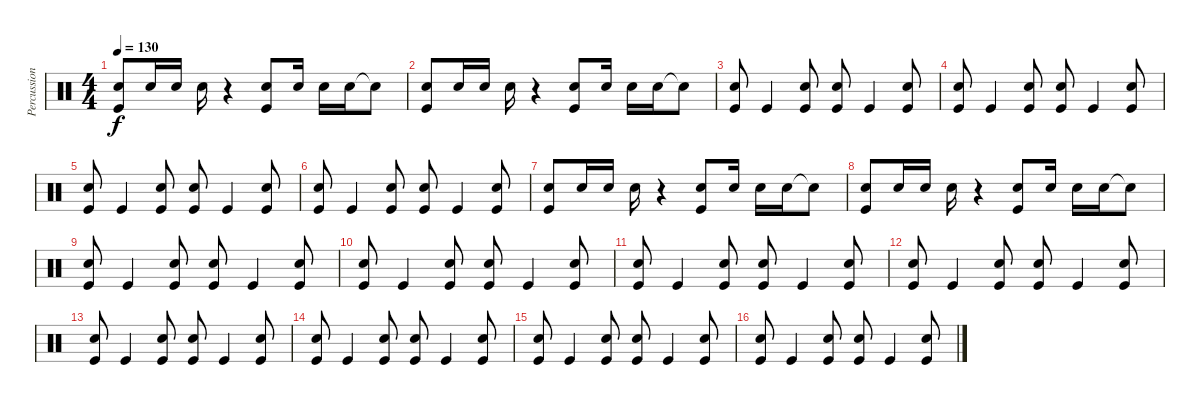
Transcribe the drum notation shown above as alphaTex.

\track ("Percussion" "Percussion") {instrument percussion}
\staff {score}
\articulation defaults
\ts (4 4)
\tempo 130
\clef neutral
\ks c
("Kick (hit)" "Snare (hit) 2").8{dy f} "Snare (hit) 2".16 "Snare (hit) 2".16 "Snare (hit) 2".16 r.4 ("Kick (hit)" "Snare (hit) 2").8 "Snare (hit) 2".16 "Snare (hit) 2".16 "Snare (hit) 2".16 "Snare (hit)"{t}.8 |
("Kick (hit)" "Snare (hit) 2").8 "Snare (hit) 2".16 "Snare (hit) 2".16 "Snare (hit) 2".16 r.4 ("Kick (hit)" "Snare (hit) 2").8 "Snare (hit) 2".16 "Snare (hit) 2".16 "Snare (hit) 2".16 "Snare (hit)"{t}.8 |
("Kick (hit)" "Snare (hit) 2").8 "Kick (hit)".4 ("Kick (hit)" "Snare (hit) 2").8 ("Kick (hit)" "Snare (hit) 2").8 "Kick (hit)".4 ("Kick (hit)" "Snare (hit) 2").8 |
("Kick (hit)" "Snare (hit) 2").8 "Kick (hit)".4 ("Kick (hit)" "Snare (hit) 2").8 ("Kick (hit)" "Snare (hit) 2").8 "Kick (hit)".4 ("Kick (hit)" "Snare (hit) 2").8 |
("Kick (hit)" "Snare (hit) 2").8 "Kick (hit)".4 ("Kick (hit)" "Snare (hit) 2").8 ("Kick (hit)" "Snare (hit) 2").8 "Kick (hit)".4 ("Kick (hit)" "Snare (hit) 2").8 |
("Kick (hit)" "Snare (hit) 2").8 "Kick (hit)".4 ("Kick (hit)" "Snare (hit) 2").8 ("Kick (hit)" "Snare (hit) 2").8 "Kick (hit)".4 ("Kick (hit)" "Snare (hit) 2").8 |
("Kick (hit)" "Snare (hit) 2").8 "Snare (hit) 2".16 "Snare (hit) 2".16 "Snare (hit) 2".16 r.4 ("Kick (hit)" "Snare (hit) 2").8 "Snare (hit) 2".16 "Snare (hit) 2".16 "Snare (hit) 2".16 "Snare (hit)"{t}.8 |
("Kick (hit)" "Snare (hit) 2").8 "Snare (hit) 2".16 "Snare (hit) 2".16 "Snare (hit) 2".16 r.4 ("Kick (hit)" "Snare (hit) 2").8 "Snare (hit) 2".16 "Snare (hit) 2".16 "Snare (hit) 2".16 "Snare (hit)"{t}.8 |
("Kick (hit)" "Snare (hit) 2").8 "Kick (hit)".4 ("Kick (hit)" "Snare (hit) 2").8 ("Kick (hit)" "Snare (hit) 2").8 "Kick (hit)".4 ("Kick (hit)" "Snare (hit) 2").8 |
("Kick (hit)" "Snare (hit) 2").8 "Kick (hit)".4 ("Kick (hit)" "Snare (hit) 2").8 ("Kick (hit)" "Snare (hit) 2").8 "Kick (hit)".4 ("Kick (hit)" "Snare (hit) 2").8 |
("Kick (hit)" "Snare (hit) 2").8 "Kick (hit)".4 ("Kick (hit)" "Snare (hit) 2").8 ("Kick (hit)" "Snare (hit) 2").8 "Kick (hit)".4 ("Kick (hit)" "Snare (hit) 2").8 |
("Kick (hit)" "Snare (hit) 2").8 "Kick (hit)".4 ("Kick (hit)" "Snare (hit) 2").8 ("Kick (hit)" "Snare (hit) 2").8 "Kick (hit)".4 ("Kick (hit)" "Snare (hit) 2").8 |
("Kick (hit)" "Snare (hit) 2").8 "Kick (hit)".4 ("Kick (hit)" "Snare (hit) 2").8 ("Kick (hit)" "Snare (hit) 2").8 "Kick (hit)".4 ("Kick (hit)" "Snare (hit) 2").8 |
("Kick (hit)" "Snare (hit) 2").8 "Kick (hit)".4 ("Kick (hit)" "Snare (hit) 2").8 ("Kick (hit)" "Snare (hit) 2").8 "Kick (hit)".4 ("Kick (hit)" "Snare (hit) 2").8 |
("Kick (hit)" "Snare (hit) 2").8 "Kick (hit)".4 ("Kick (hit)" "Snare (hit) 2").8 ("Kick (hit)" "Snare (hit) 2").8 "Kick (hit)".4 ("Kick (hit)" "Snare (hit) 2").8 |
("Kick (hit)" "Snare (hit) 2").8 "Kick (hit)".4 ("Kick (hit)" "Snare (hit) 2").8 ("Kick (hit)" "Snare (hit) 2").8 "Kick (hit)".4 ("Kick (hit)" "Snare (hit) 2").8
